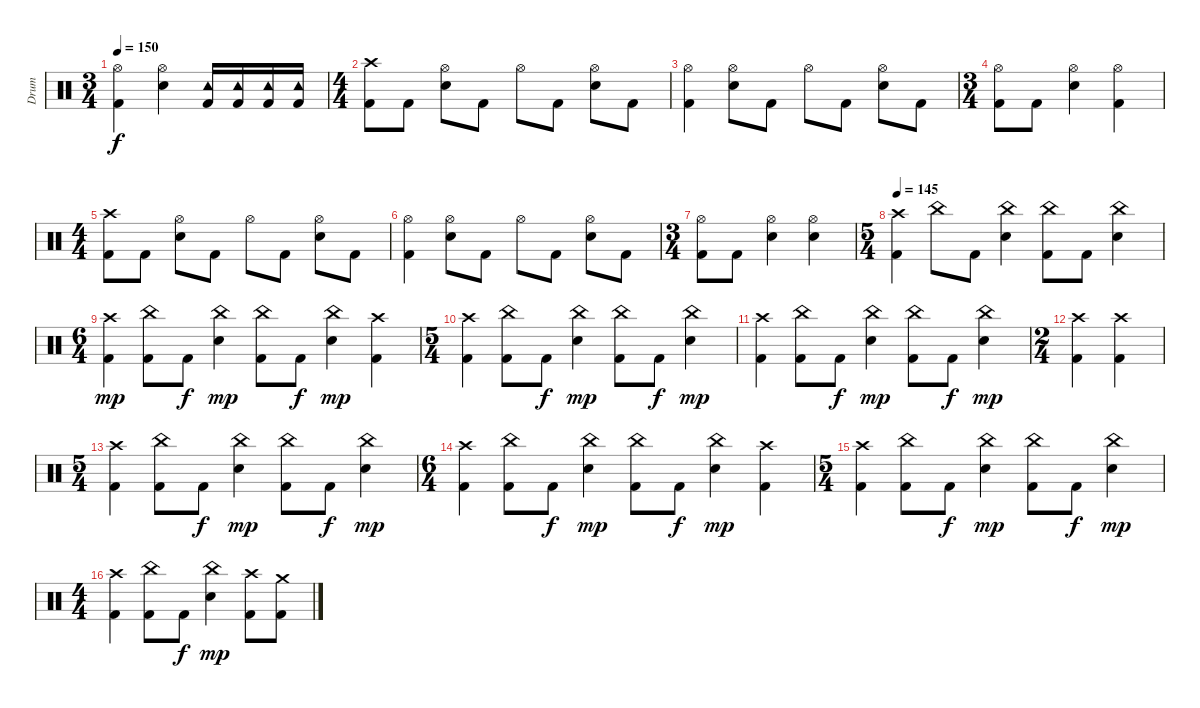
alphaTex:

\track ("Drum" "Drum") {instrument percussion}
\staff {score}
\articulation defaults
\ts (3 4)
\tempo 150
\clef neutral
\ks c
("Hi-Hat (open)" "Kick (hit) 2").4{dy f} ("Electric Snare (hit)" "Hi-Hat (open)").4 ("Tambourine (hit)" "Kick (hit) 2").16 ("Tambourine (hit)" "Kick (hit) 2").16 ("Tambourine (hit)" "Kick (hit) 2").16 ("Tambourine (hit)" "Kick (hit) 2").16 |
\ts (4 4)
("Crash high (hit)" "Kick (hit) 2").8 "Kick (hit) 2".8 ("Electric Snare (hit)" "Hi-Hat (open)").8 "Kick (hit) 2".8 "Hi-Hat (open)".8 "Kick (hit) 2".8 ("Hi-Hat (open)" "Electric Snare (hit)").8 "Kick (hit) 2".8 |
("Hi-Hat (open)" "Kick (hit) 2").4 ("Electric Snare (hit)" "Hi-Hat (open)").8 "Kick (hit) 2".8 "Hi-Hat (open)".8 "Kick (hit) 2".8 ("Electric Snare (hit)" "Hi-Hat (open)").8 "Kick (hit) 2".8 |
\ts (3 4)
("Kick (hit) 2" "Hi-Hat (open)").8 "Kick (hit) 2".8 ("Electric Snare (hit)" "Hi-Hat (open)").4 ("Kick (hit) 2" "Hi-Hat (open)").4 |
\ts (4 4)
("Crash high (hit)" "Kick (hit) 2").8 "Kick (hit) 2".8 ("Electric Snare (hit)" "Hi-Hat (open)").8 "Kick (hit) 2".8 "Hi-Hat (open)".8 "Kick (hit) 2".8 ("Hi-Hat (open)" "Electric Snare (hit)").8 "Kick (hit) 2".8 |
("Hi-Hat (open)" "Kick (hit) 2").4 ("Electric Snare (hit)" "Hi-Hat (open)").8 "Kick (hit) 2".8 "Hi-Hat (open)".8 "Kick (hit) 2".8 ("Electric Snare (hit)" "Hi-Hat (open)").8 "Kick (hit) 2".8 |
\ts (3 4)
("Kick (hit) 2" "Hi-Hat (open)").8 "Kick (hit) 2".8 ("Electric Snare (hit)" "Hi-Hat (open)").4 ("Hi-Hat (open)" "Electric Snare (hit)").4 |
\ts (5 4)
\tempo 145
("Kick (hit) 2" "Crash high (hit)").4{volume 11} "China (hit)".8 "Kick (hit) 2".8 ("China (hit)" "Electric Snare (hit)").4 ("China (hit)" "Kick (hit) 2").8 "Kick (hit) 2".8 ("China (hit)" "Electric Snare (hit)").4 |
\ts (6 4)
("Crash high (hit)" "Kick (hit) 2").4{dy mp} ("Kick (hit) 2" "China (hit)").8 "Kick (hit) 2".8{dy f} ("Electric Snare (hit)" "China (hit)").4{dy mp} ("Kick (hit) 2" "China (hit)").8 "Kick (hit) 2".8{dy f} ("Electric Snare (hit)" "China (hit)").4{dy mp} ("Kick (hit) 2" "Crash high (hit)").4 |
\ts (5 4)
("Crash high (hit)" "Kick (hit) 2").4 ("China (hit)" "Kick (hit) 2").8 "Kick (hit) 2".8{dy f} ("China (hit)" "Electric Snare (hit)").4{dy mp} ("China (hit)" "Kick (hit) 2").8 "Kick (hit) 2".8{dy f} ("China (hit)" "Electric Snare (hit)").4{dy mp} |
("Kick (hit) 2" "Crash high (hit)").4 ("Kick (hit) 2" "China (hit)").8 "Kick (hit) 2".8{dy f} ("Electric Snare (hit)" "China (hit)").4{dy mp} ("Kick (hit) 2" "China (hit)").8 "Kick (hit) 2".8{dy f} ("Electric Snare (hit)" "China (hit)").4{dy mp} |
\ts (2 4)
("Kick (hit) 2" "Crash high (hit)").4 ("Crash high (hit)" "Kick (hit) 2").4 |
\ts (5 4)
("Kick (hit) 2" "Crash high (hit)").4 ("China (hit)" "Kick (hit) 2").8 "Kick (hit) 2".8{dy f} ("China (hit)" "Electric Snare (hit)").4{dy mp} ("China (hit)" "Kick (hit) 2").8 "Kick (hit) 2".8{dy f} ("China (hit)" "Electric Snare (hit)").4{dy mp} |
\ts (6 4)
("Kick (hit) 2" "Crash high (hit)").4 ("China (hit)" "Kick (hit) 2").8 "Kick (hit) 2".8{dy f} ("China (hit)" "Electric Snare (hit)").4{dy mp} ("China (hit)" "Kick (hit) 2").8 "Kick (hit) 2".8{dy f} ("China (hit)" "Electric Snare (hit)").4{dy mp} ("Crash high (hit)" "Kick (hit) 2").4 |
\ts (5 4)
("Crash high (hit)" "Kick (hit) 2").4 ("China (hit)" "Kick (hit) 2").8 "Kick (hit) 2".8{dy f} ("China (hit)" "Electric Snare (hit)").4{dy mp} ("China (hit)" "Kick (hit) 2").8 "Kick (hit) 2".8{dy f} ("China (hit)" "Electric Snare (hit)").4{dy mp} |
\ts (4 4)
("Crash high (hit)" "Kick (hit) 2").4 ("Kick (hit) 2" "China (hit)").8 "Kick (hit) 2".8{dy f} ("Electric Snare (hit)" "China (hit)").4{dy mp} ("Kick (hit) 2" "Crash high (hit)").8 ("Kick (hit) 2" "Crash medium (hit)").8
